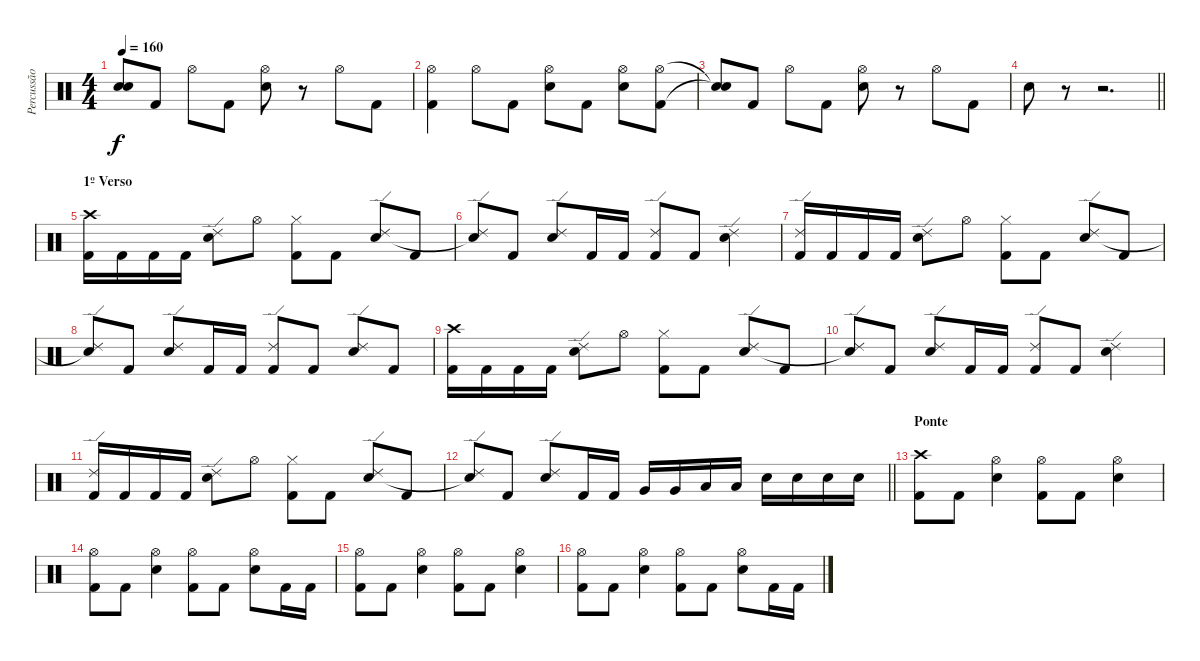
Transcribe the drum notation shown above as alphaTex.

\track ("Percussão" "Percussão") {instrument percussion}
\staff {score}
\articulation defaults
\ts (4 4)
\tempo 160
\clef neutral
\ks c
("Snare (hit)"{t} "Snare (hit)"{t}).8{dy f} "Kick (hit) 2".8 "Hi-Hat (open)".8 "Kick (hit) 2".8 ("Hi-Hat (open)" "Electric Snare (hit)").8 r.8 "Hi-Hat (open)".8 "Kick (hit) 2".8 |
("Hi-Hat (open)" "Kick (hit) 2").4 "Hi-Hat (open)".8 "Kick (hit) 2".8 ("Hi-Hat (open)" "Electric Snare (hit)").8 "Kick (hit) 2".8 ("Hi-Hat (open)" "Electric Snare (hit)").8 ("Hi-Hat (open)" "Kick (hit) 2").8 |
("Snare (hit)"{t} "Snare (hit)"{t}).8 "Kick (hit) 2".8 "Hi-Hat (open)".8 "Kick (hit) 2".8 ("Hi-Hat (open)" "Electric Snare (hit)").8 r.8 "Hi-Hat (open)".8 "Kick (hit) 2".8 |
\barLineRight lightlight "Electric Snare (hit)".8
r.8 r.2{d} |
\section ("" "1º Verso")
("Crash high (hit)" "Kick (hit) 2").16 "Kick (hit) 2".16 "Kick (hit) 2".16 "Kick (hit) 2".16 ("Ride (edge) 2" "Electric Snare (hit)").8 "Hi-Hat (open)".8 ("Hi-Hat (closed)" "Kick (hit) 2").8 "Kick (hit) 2".8 ("Ride (edge) 2" "Electric Snare (hit)").8 "Kick (hit) 2".8 |
("Ride (edge) 2" "Snare (hit)"{t}).8 "Kick (hit) 2".8 ("Ride (edge) 2" "Electric Snare (hit)").8 "Kick (hit) 2".16 "Kick (hit) 2".16 ("Ride (edge) 2" "Kick (hit) 2").8 "Kick (hit) 2".8 ("Ride (edge) 2" "Electric Snare (hit)").4 |
("Ride (edge) 2" "Kick (hit) 2").16 "Kick (hit) 2".16 "Kick (hit) 2".16 "Kick (hit) 2".16 ("Ride (edge) 2" "Electric Snare (hit)").8 "Hi-Hat (open)".8 ("Hi-Hat (closed)" "Kick (hit) 2").8 "Kick (hit) 2".8 ("Ride (edge) 2" "Electric Snare (hit)").8 "Kick (hit) 2".8 |
("Ride (edge) 2" "Snare (hit)"{t}).8 "Kick (hit) 2".8 ("Ride (edge) 2" "Electric Snare (hit)").8 "Kick (hit) 2".16 "Kick (hit) 2".16 ("Ride (edge) 2" "Kick (hit) 2").8 "Kick (hit) 2".8 ("Ride (edge) 2" "Electric Snare (hit)").8 "Kick (hit) 2".8 |
("Crash high (hit)" "Kick (hit) 2").16 "Kick (hit) 2".16 "Kick (hit) 2".16 "Kick (hit) 2".16 ("Ride (edge) 2" "Electric Snare (hit)").8 "Hi-Hat (open)".8 ("Hi-Hat (closed)" "Kick (hit) 2").8 "Kick (hit) 2".8 ("Ride (edge) 2" "Electric Snare (hit)").8 "Kick (hit) 2".8 |
("Ride (edge) 2" "Snare (hit)"{t}).8 "Kick (hit) 2".8 ("Ride (edge) 2" "Electric Snare (hit)").8 "Kick (hit) 2".16 "Kick (hit) 2".16 ("Ride (edge) 2" "Kick (hit) 2").8 "Kick (hit) 2".8 ("Ride (edge) 2" "Electric Snare (hit)").4 |
("Ride (edge) 2" "Kick (hit) 2").16 "Kick (hit) 2".16 "Kick (hit) 2".16 "Kick (hit) 2".16 ("Ride (edge) 2" "Electric Snare (hit)").8 "Hi-Hat (open)".8 ("Hi-Hat (closed)" "Kick (hit) 2").8 "Kick (hit) 2".8 ("Ride (edge) 2" "Electric Snare (hit)").8 "Kick (hit) 2".8 |
\barLineRight lightlight
("Ride (edge) 2" "Snare (hit)"{t}).8 "Kick (hit) 2".8 ("Ride (edge) 2" "Electric Snare (hit)").8 "Kick (hit) 2".16 "Kick (hit) 2".16 "Very Low Tom (hit)".16 "Very Low Tom (hit)".16 "Low Floor Tom (hit)".16 "Low Floor Tom (hit)".16 "Electric Snare (hit)".16 "Electric Snare (hit)".16 "Electric Snare (hit)".16 "Electric Snare (hit)".16 |
\section ("" "Ponte")
("Crash high (hit)" "Kick (hit) 2").8 "Kick (hit) 2".8 ("Hi-Hat (open)" "Electric Snare (hit)").4 ("Hi-Hat (open)" "Kick (hit) 2").8 "Kick (hit) 2".8 ("Hi-Hat (open)" "Electric Snare (hit)").4 |
("Hi-Hat (open)" "Kick (hit) 2").8 "Kick (hit) 2".8 ("Hi-Hat (open)" "Electric Snare (hit)").4 ("Hi-Hat (open)" "Kick (hit) 2").8 "Kick (hit) 2".8 ("Hi-Hat (open)" "Electric Snare (hit)").8 "Kick (hit) 2".16 "Kick (hit) 2".16 |
("Hi-Hat (open)" "Kick (hit) 2").8 "Kick (hit) 2".8 ("Hi-Hat (open)" "Electric Snare (hit)").4 ("Hi-Hat (open)" "Kick (hit) 2").8 "Kick (hit) 2".8 ("Hi-Hat (open)" "Electric Snare (hit)").4 |
("Hi-Hat (open)" "Kick (hit) 2").8 "Kick (hit) 2".8 ("Hi-Hat (open)" "Electric Snare (hit)").4 ("Hi-Hat (open)" "Kick (hit) 2").8 "Kick (hit) 2".8 ("Hi-Hat (open)" "Electric Snare (hit)").8 "Kick (hit) 2".16 "Kick (hit) 2".16
